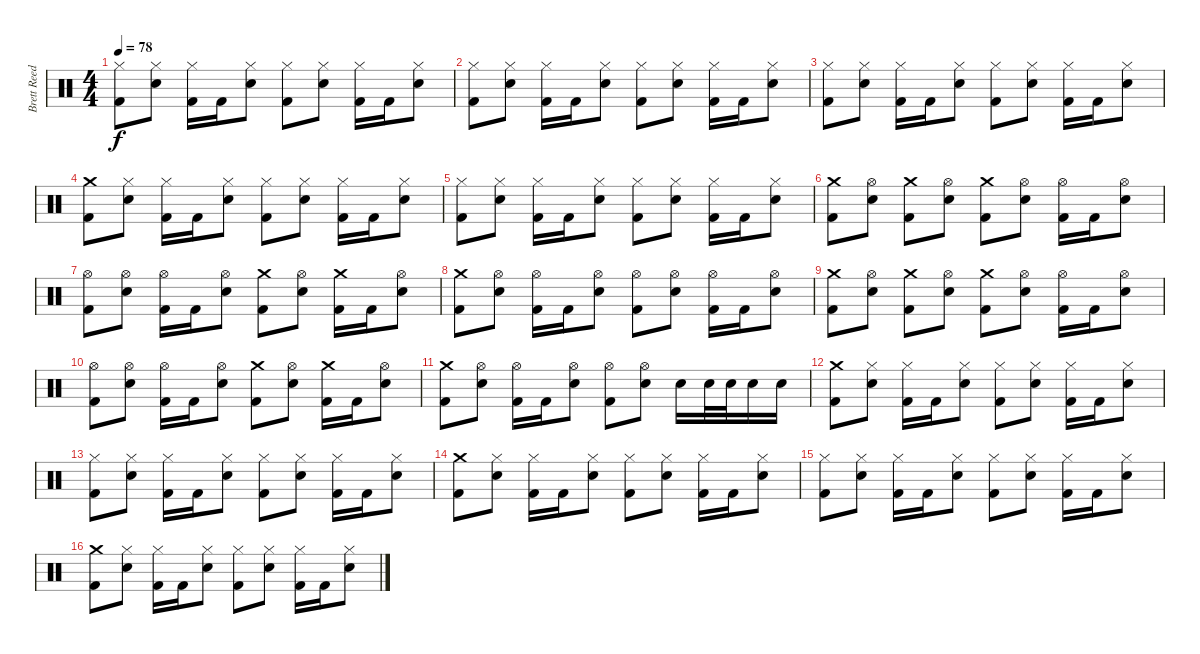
\track ("Brett Reed" "Brett Reed") {instrument percussion}
\staff {score}
\articulation defaults
\ts (4 4)
\tempo 78
\clef neutral
\ks c
("Hi-Hat (closed)" "Kick (hit) 2").8{dy f} ("Hi-Hat (closed)" "Electric Snare (hit)").8 ("Hi-Hat (closed)" "Kick (hit) 2").16 "Kick (hit) 2".16 ("Hi-Hat (closed)" "Electric Snare (hit)").8 ("Hi-Hat (closed)" "Kick (hit) 2").8 ("Hi-Hat (closed)" "Electric Snare (hit)").8 ("Hi-Hat (closed)" "Kick (hit) 2").16 "Kick (hit) 2".16 ("Hi-Hat (closed)" "Electric Snare (hit)").8 |
("Hi-Hat (closed)" "Kick (hit) 2").8 ("Hi-Hat (closed)" "Electric Snare (hit)").8 ("Hi-Hat (closed)" "Kick (hit) 2").16 "Kick (hit) 2".16 ("Hi-Hat (closed)" "Electric Snare (hit)").8 ("Hi-Hat (closed)" "Kick (hit) 2").8 ("Hi-Hat (closed)" "Electric Snare (hit)").8 ("Hi-Hat (closed)" "Kick (hit) 2").16 "Kick (hit) 2".16 ("Hi-Hat (closed)" "Electric Snare (hit)").8 |
("Hi-Hat (closed)" "Kick (hit) 2").8 ("Hi-Hat (closed)" "Electric Snare (hit)").8 ("Hi-Hat (closed)" "Kick (hit) 2").16 "Kick (hit) 2".16 ("Hi-Hat (closed)" "Electric Snare (hit)").8 ("Hi-Hat (closed)" "Kick (hit) 2").8 ("Hi-Hat (closed)" "Electric Snare (hit)").8 ("Hi-Hat (closed)" "Kick (hit) 2").16 "Kick (hit) 2".16 ("Hi-Hat (closed)" "Electric Snare (hit)").8 |
("Crash medium (hit)" "Kick (hit) 2").8 ("Hi-Hat (closed)" "Electric Snare (hit)").8 ("Hi-Hat (closed)" "Kick (hit) 2").16 "Kick (hit) 2".16 ("Hi-Hat (closed)" "Electric Snare (hit)").8 ("Hi-Hat (closed)" "Kick (hit) 2").8 ("Hi-Hat (closed)" "Electric Snare (hit)").8 ("Hi-Hat (closed)" "Kick (hit) 2").16 "Kick (hit) 2".16 ("Hi-Hat (closed)" "Electric Snare (hit)").8 |
("Hi-Hat (closed)" "Kick (hit) 2").8 ("Hi-Hat (closed)" "Electric Snare (hit)").8 ("Hi-Hat (closed)" "Kick (hit) 2").16 "Kick (hit) 2".16 ("Hi-Hat (closed)" "Electric Snare (hit)").8 ("Hi-Hat (closed)" "Kick (hit) 2").8 ("Hi-Hat (closed)" "Electric Snare (hit)").8 ("Hi-Hat (closed)" "Kick (hit) 2").16 "Kick (hit) 2".16 ("Hi-Hat (closed)" "Electric Snare (hit)").8 |
("Crash medium (hit)" "Kick (hit) 2").8 ("Hi-Hat (open)" "Electric Snare (hit)").8 ("Crash medium (hit)" "Kick (hit) 2").8 ("Hi-Hat (open)" "Electric Snare (hit)").8 ("Crash medium (hit)" "Kick (hit) 2").8 ("Hi-Hat (open)" "Electric Snare (hit)").8 ("Hi-Hat (open)" "Kick (hit) 2").16 "Kick (hit) 2".16 ("Hi-Hat (open)" "Electric Snare (hit)").8 |
("Hi-Hat (open)" "Kick (hit) 2").8 ("Hi-Hat (open)" "Electric Snare (hit)").8 ("Hi-Hat (open)" "Kick (hit) 2").16 "Kick (hit) 2".16 ("Hi-Hat (open)" "Electric Snare (hit)").8 ("Crash medium (hit)" "Kick (hit) 2").8 ("Hi-Hat (open)" "Electric Snare (hit)").8 ("Crash medium (hit)" "Kick (hit) 2").16 "Kick (hit) 2".16 ("Hi-Hat (open)" "Electric Snare (hit)").8 |
("Crash medium (hit)" "Kick (hit) 2").8 ("Hi-Hat (open)" "Electric Snare (hit)").8 ("Hi-Hat (open)" "Kick (hit) 2").16 "Kick (hit) 2".16 ("Hi-Hat (open)" "Electric Snare (hit)").8 ("Hi-Hat (open)" "Kick (hit) 2").8 ("Hi-Hat (open)" "Electric Snare (hit)").8 ("Hi-Hat (open)" "Kick (hit) 2").16 "Kick (hit) 2".16 ("Hi-Hat (open)" "Snare (hit) 2").8 |
("Crash medium (hit)" "Kick (hit) 2").8 ("Hi-Hat (open)" "Electric Snare (hit)").8 ("Crash medium (hit)" "Kick (hit) 2").8 ("Hi-Hat (open)" "Electric Snare (hit)").8 ("Crash medium (hit)" "Kick (hit) 2").8 ("Hi-Hat (open)" "Electric Snare (hit)").8 ("Hi-Hat (open)" "Kick (hit) 2").16 "Kick (hit) 2".16 ("Hi-Hat (open)" "Electric Snare (hit)").8 |
("Hi-Hat (open)" "Kick (hit) 2").8 ("Hi-Hat (open)" "Electric Snare (hit)").8 ("Hi-Hat (open)" "Kick (hit) 2").16 "Kick (hit) 2".16 ("Hi-Hat (open)" "Electric Snare (hit)").8 ("Crash medium (hit)" "Kick (hit) 2").8 ("Hi-Hat (open)" "Electric Snare (hit)").8 ("Crash medium (hit)" "Kick (hit) 2").16 "Kick (hit) 2".16 ("Hi-Hat (open)" "Electric Snare (hit)").8 |
("Crash medium (hit)" "Kick (hit) 2").8 ("Hi-Hat (open)" "Electric Snare (hit)").8 ("Hi-Hat (open)" "Kick (hit) 2").16 "Kick (hit) 2".16 ("Hi-Hat (open)" "Electric Snare (hit)").8 ("Hi-Hat (open)" "Kick (hit) 2").8 ("Hi-Hat (open)" "Electric Snare (hit)").8 "Electric Snare (hit)".16 "Electric Snare (hit)".32 "Electric Snare (hit)".32 "Electric Snare (hit)".16 "Electric Snare (hit)".16 |
("Crash medium (hit)" "Kick (hit) 2").8 ("Hi-Hat (closed)" "Electric Snare (hit)").8 ("Hi-Hat (closed)" "Kick (hit) 2").16 "Kick (hit) 2".16 ("Hi-Hat (closed)" "Electric Snare (hit)").8 ("Hi-Hat (closed)" "Kick (hit) 2").8 ("Hi-Hat (closed)" "Electric Snare (hit)").8 ("Hi-Hat (closed)" "Kick (hit) 2").16 "Kick (hit) 2".16 ("Hi-Hat (closed)" "Electric Snare (hit)").8 |
("Hi-Hat (closed)" "Kick (hit) 2").8 ("Hi-Hat (closed)" "Electric Snare (hit)").8 ("Hi-Hat (closed)" "Kick (hit) 2").16 "Kick (hit) 2".16 ("Hi-Hat (closed)" "Electric Snare (hit)").8 ("Hi-Hat (closed)" "Kick (hit) 2").8 ("Hi-Hat (closed)" "Electric Snare (hit)").8 ("Hi-Hat (closed)" "Kick (hit) 2").16 "Kick (hit) 2".16 ("Hi-Hat (closed)" "Electric Snare (hit)").8 |
("Crash medium (hit)" "Kick (hit) 2").8 ("Hi-Hat (closed)" "Electric Snare (hit)").8 ("Hi-Hat (closed)" "Kick (hit) 2").16 "Kick (hit) 2".16 ("Hi-Hat (closed)" "Electric Snare (hit)").8 ("Hi-Hat (closed)" "Kick (hit) 2").8 ("Hi-Hat (closed)" "Electric Snare (hit)").8 ("Hi-Hat (closed)" "Kick (hit) 2").16 "Kick (hit) 2".16 ("Hi-Hat (closed)" "Electric Snare (hit)").8 |
("Hi-Hat (closed)" "Kick (hit) 2").8 ("Hi-Hat (closed)" "Electric Snare (hit)").8 ("Hi-Hat (closed)" "Kick (hit) 2").16 "Kick (hit) 2".16 ("Hi-Hat (closed)" "Electric Snare (hit)").8 ("Hi-Hat (closed)" "Kick (hit) 2").8 ("Hi-Hat (closed)" "Electric Snare (hit)").8 ("Hi-Hat (closed)" "Kick (hit) 2").16 "Kick (hit) 2".16 ("Hi-Hat (closed)" "Electric Snare (hit)").8 |
("Crash medium (hit)" "Kick (hit) 2").8 ("Hi-Hat (closed)" "Electric Snare (hit)").8 ("Hi-Hat (closed)" "Kick (hit) 2").16 "Kick (hit) 2".16 ("Hi-Hat (closed)" "Electric Snare (hit)").8 ("Hi-Hat (closed)" "Kick (hit) 2").8 ("Hi-Hat (closed)" "Electric Snare (hit)").8 ("Hi-Hat (closed)" "Kick (hit) 2").16 "Kick (hit) 2".16 ("Hi-Hat (closed)" "Electric Snare (hit)").8
